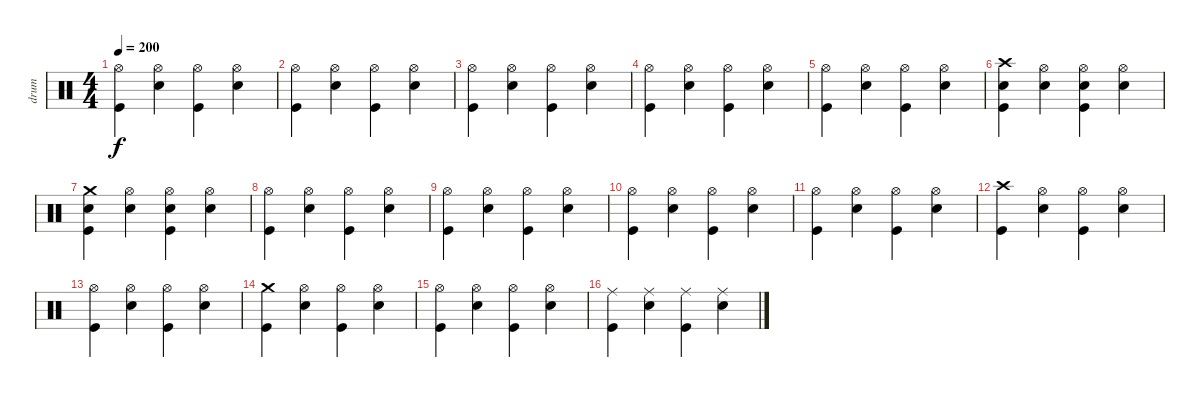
\track ("drum" "drum") {instrument percussion}
\staff {score}
\articulation defaults
\ts (4 4)
\tempo 200
\clef neutral
\ks c
("Hi-Hat (open)" "Kick (hit)").4{dy f} ("Hi-Hat (open)" "Snare (hit) 2").4 ("Hi-Hat (open)" "Kick (hit)").4 ("Hi-Hat (open)" "Snare (hit) 2").4 |
("Hi-Hat (open)" "Kick (hit)").4 ("Hi-Hat (open)" "Snare (hit) 2").4 ("Hi-Hat (open)" "Kick (hit)").4 ("Hi-Hat (open)" "Snare (hit) 2").4 |
("Hi-Hat (open)" "Kick (hit)").4 ("Hi-Hat (open)" "Snare (hit) 2").4 ("Hi-Hat (open)" "Kick (hit)").4 ("Hi-Hat (open)" "Snare (hit) 2").4 |
("Hi-Hat (open)" "Kick (hit)").4 ("Hi-Hat (open)" "Snare (hit) 2").4 ("Hi-Hat (open)" "Kick (hit)").4 ("Hi-Hat (open)" "Snare (hit) 2").4 |
("Hi-Hat (open)" "Kick (hit)").4 ("Hi-Hat (open)" "Snare (hit) 2").4 ("Hi-Hat (open)" "Kick (hit)").4 ("Hi-Hat (open)" "Snare (hit) 2").4 |
("Crash high (hit)" "Snare (hit) 2" "Kick (hit)").4 ("Hi-Hat (open)" "Snare (hit) 2").4 ("Hi-Hat (open)" "Snare (hit) 2" "Kick (hit)").4 ("Hi-Hat (open)" "Snare (hit) 2").4 |
("Crash medium (hit)" "Snare (hit) 2" "Kick (hit)").4 ("Hi-Hat (open)" "Snare (hit) 2").4 ("Hi-Hat (open)" "Snare (hit) 2" "Kick (hit)").4 ("Hi-Hat (open)" "Snare (hit) 2").4 |
("Hi-Hat (open)" "Kick (hit)").4 ("Hi-Hat (open)" "Snare (hit) 2").4 ("Hi-Hat (open)" "Kick (hit)").4 ("Hi-Hat (open)" "Snare (hit) 2").4 |
("Hi-Hat (open)" "Kick (hit)").4 ("Hi-Hat (open)" "Snare (hit) 2").4 ("Hi-Hat (open)" "Kick (hit)").4 ("Hi-Hat (open)" "Snare (hit) 2").4 |
("Hi-Hat (open)" "Kick (hit)").4 ("Hi-Hat (open)" "Snare (hit) 2").4 ("Hi-Hat (open)" "Kick (hit)").4 ("Hi-Hat (open)" "Snare (hit) 2").4 |
("Hi-Hat (open)" "Kick (hit)").4 ("Hi-Hat (open)" "Snare (hit) 2").4 ("Hi-Hat (open)" "Kick (hit)").4 ("Hi-Hat (open)" "Snare (hit) 2").4 |
("Crash high (hit)" "Kick (hit)").4 ("Hi-Hat (open)" "Snare (hit) 2").4 ("Hi-Hat (open)" "Kick (hit)").4 ("Hi-Hat (open)" "Snare (hit) 2").4 |
("Hi-Hat (open)" "Kick (hit)").4 ("Hi-Hat (open)" "Snare (hit) 2").4 ("Hi-Hat (open)" "Kick (hit)").4 ("Hi-Hat (open)" "Snare (hit) 2").4 |
("Crash medium (hit)" "Kick (hit)").4 ("Hi-Hat (open)" "Snare (hit) 2").4 ("Hi-Hat (open)" "Kick (hit)").4 ("Hi-Hat (open)" "Snare (hit) 2").4 |
("Hi-Hat (open)" "Kick (hit)").4 ("Hi-Hat (open)" "Snare (hit) 2").4 ("Hi-Hat (open)" "Kick (hit)").4 ("Hi-Hat (open)" "Snare (hit) 2").4 |
("Ride (middle)" "Kick (hit)").4 ("Ride (middle)" "Snare (hit) 2").4 ("Ride (middle)" "Kick (hit)").4 ("Ride (middle)" "Snare (hit) 2").4
